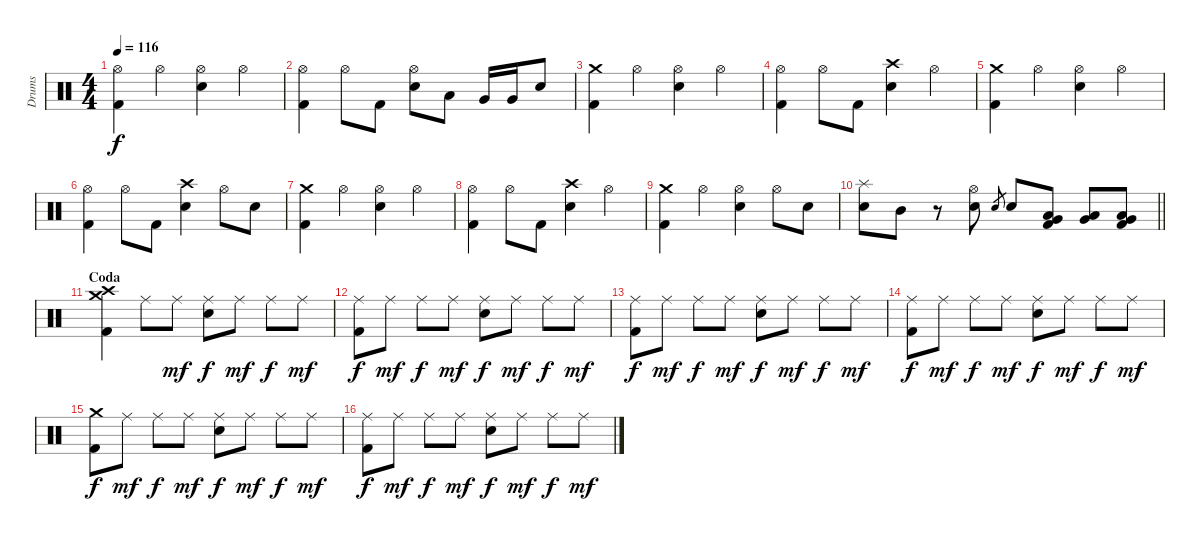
\track ("Drums" "Drums") {instrument percussion}
\staff {score}
\articulation defaults
\ts (4 4)
\tempo 116
\clef neutral
\ks c
("Hi-Hat (open)" "Kick (hit) 2").4{dy f} "Hi-Hat (open)".4 ("Hi-Hat (open)" "Electric Snare (hit)").4 "Hi-Hat (open)".4 |
("Hi-Hat (open)" "Kick (hit) 2").4 "Hi-Hat (open)".8 "Kick (hit) 2".8 ("Hi-Hat (open)" "Electric Snare (hit)").8 "Low Tom (hit)".8 "Very Low Tom (hit)".16 "Very Low Tom (hit)".16 "Electric Snare (hit)".8 |
("Crash medium (hit)" "Kick (hit) 2").4 "Hi-Hat (open)".4 ("Hi-Hat (open)" "Electric Snare (hit)").4 "Hi-Hat (open)".4 |
("Hi-Hat (open)" "Kick (hit) 2").4 "Hi-Hat (open)".8 "Kick (hit) 2".8 ("Crash high (hit)" "Electric Snare (hit)").4 "Hi-Hat (open)".4 |
("Crash medium (hit)" "Kick (hit) 2").4 "Hi-Hat (open)".4 ("Hi-Hat (open)" "Electric Snare (hit)").4 "Hi-Hat (open)".4 |
("Hi-Hat (open)" "Kick (hit) 2").4 "Hi-Hat (open)".8 "Kick (hit) 2".8 ("Crash high (hit)" "Electric Snare (hit)").4 "Hi-Hat (open)".8 "Electric Snare (hit)".8 |
("Crash medium (hit)" "Kick (hit) 2").4 "Hi-Hat (open)".4 ("Hi-Hat (open)" "Electric Snare (hit)").4 "Hi-Hat (open)".4 |
("Hi-Hat (open)" "Kick (hit) 2").4 "Hi-Hat (open)".8 "Kick (hit) 2".8 ("Crash high (hit)" "Electric Snare (hit)").4 "Hi-Hat (open)".4 |
("Crash medium (hit)" "Kick (hit) 2").4 "Hi-Hat (open)".4 ("Hi-Hat (open)" "Electric Snare (hit)").4 "Hi-Hat (open)".8 "Electric Snare (hit)".8 |
\barLineRight lightlight
("Splash (hit)" "Electric Snare (hit)").8 "Mid Tom (hit)".8 r.8 ("Hi-Hat (open)" "Electric Snare (hit)").8 "Electric Snare (hit)".8{gr} "Electric Snare (hit)".8 ("Very Low Tom (hit)" "Low Floor Tom (hit)" "Kick (hit) 2").8 ("Low Tom (hit)" "Very Low Tom (hit)").8 ("Very Low Tom (hit)" "Low Floor Tom (hit)" "Kick (hit) 2").8 |
\section ("" "Coda")
("Crash medium (hit)" "Crash high (hit)" "Kick (hit) 2").4 "Ride (middle)".8 "Ride (middle)".8{dy mf} ("Ride (middle)" "Electric Snare (hit)").8{dy f} "Ride (middle)".8{dy mf} "Ride (middle)".8{dy f} "Ride (middle)".8{dy mf} |
("Ride (middle)" "Kick (hit) 2").8{dy f} "Ride (middle)".8{dy mf} "Ride (middle)".8{dy f} "Ride (middle)".8{dy mf} ("Ride (middle)" "Electric Snare (hit)").8{dy f} "Ride (middle)".8{dy mf} "Ride (middle)".8{dy f} "Ride (middle)".8{dy mf} |
("Ride (middle)" "Kick (hit) 2").8{dy f} "Ride (middle)".8{dy mf} "Ride (middle)".8{dy f} "Ride (middle)".8{dy mf} ("Ride (middle)" "Electric Snare (hit)").8{dy f} "Ride (middle)".8{dy mf} "Ride (middle)".8{dy f} "Ride (middle)".8{dy mf} |
("Ride (middle)" "Kick (hit) 2").8{dy f} "Ride (middle)".8{dy mf} "Ride (middle)".8{dy f} "Ride (middle)".8{dy mf} ("Ride (middle)" "Electric Snare (hit)").8{dy f} "Ride (middle)".8{dy mf} "Ride (middle)".8{dy f} "Ride (middle)".8{dy mf} |
("Crash medium (hit)" "Kick (hit) 2").8{dy f} "Ride (middle)".8{dy mf} "Ride (middle)".8{dy f} "Ride (middle)".8{dy mf} ("Ride (middle)" "Electric Snare (hit)").8{dy f} "Ride (middle)".8{dy mf} "Ride (middle)".8{dy f} "Ride (middle)".8{dy mf} |
("Ride (middle)" "Kick (hit) 2").8{dy f} "Ride (middle)".8{dy mf} "Ride (middle)".8{dy f} "Ride (middle)".8{dy mf} ("Ride (middle)" "Electric Snare (hit)").8{dy f} "Ride (middle)".8{dy mf} "Ride (middle)".8{dy f} "Ride (middle)".8{dy mf}
